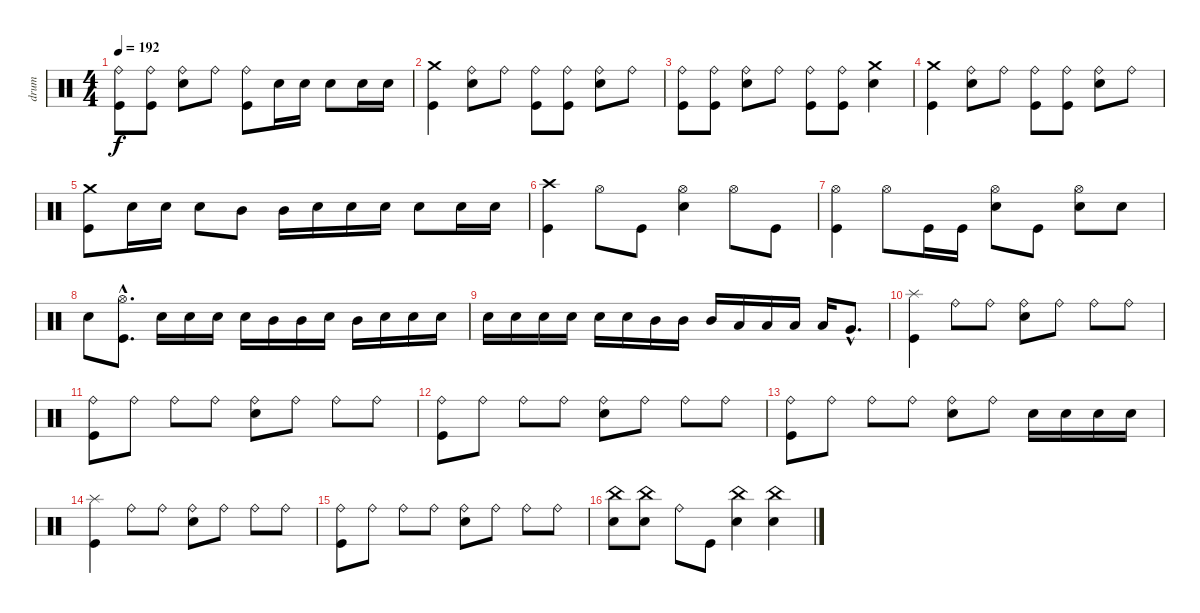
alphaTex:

\track ("drum" "drum") {instrument percussion}
\staff {score}
\articulation defaults
\ts (4 4)
\tempo 192
\clef neutral
\ks c
("Kick (hit)" "Ride (bell)").8{dy f} ("Kick (hit)" "Ride (bell)").8 ("Electric Snare (hit)" "Ride (bell)").8 "Ride (bell)".8 ("Kick (hit)" "Ride (bell)").8 "Electric Snare (hit)".16 "Electric Snare (hit)".16 "Electric Snare (hit)".8 "Electric Snare (hit)".16 "Electric Snare (hit)".16 |
("Kick (hit)" "Crash medium (hit)").4 ("Electric Snare (hit)" "Ride (bell)").8 "Ride (bell)".8 ("Kick (hit)" "Ride (bell)").8 ("Kick (hit)" "Ride (bell)").8 ("Electric Snare (hit)" "Ride (bell)").8 "Ride (bell)".8 |
("Kick (hit)" "Ride (bell)").8 ("Kick (hit)" "Ride (bell)").8 ("Electric Snare (hit)" "Ride (bell)").8 "Ride (bell)".8 ("Kick (hit)" "Ride (bell)").8 ("Kick (hit)" "Ride (bell)").8 ("Electric Snare (hit)" "Crash medium (hit)").4 |
("Kick (hit)" "Crash medium (hit)").4 ("Electric Snare (hit)" "Ride (bell)").8 "Ride (bell)".8 ("Kick (hit)" "Ride (bell)").8 ("Kick (hit)" "Ride (bell)").8 ("Electric Snare (hit)" "Ride (bell)").8 "Ride (bell)".8 |
("Kick (hit)" "Crash medium (hit)").8 "Electric Snare (hit)".16 "Electric Snare (hit)".16 "Electric Snare (hit)".8 "Mid Tom (hit)".8 "Mid Tom (hit)".16 "Electric Snare (hit)".16 "Electric Snare (hit)".16 "Electric Snare (hit)".16 "Electric Snare (hit)".8 "Electric Snare (hit)".16 "Electric Snare (hit)".16 |
("Kick (hit)" "Crash high (hit)").4 "Hi-Hat (open)".8 "Kick (hit)".8 ("Electric Snare (hit)" "Hi-Hat (open)").4 "Hi-Hat (open)".8 "Kick (hit)".8 |
("Kick (hit)" "Hi-Hat (open)").4 "Hi-Hat (open)".8 "Kick (hit)".16 "Kick (hit)".16 ("Electric Snare (hit)" "Hi-Hat (open)").8 "Kick (hit)".8 ("Electric Snare (hit)" "Hi-Hat (open)").8 "Electric Snare (hit)".8 |
"Electric Snare (hit)".8 ("Kick (hit)"{hac} "Hi-Hat (open)"{hac}).8{d} "Electric Snare (hit)".16 "Electric Snare (hit)".16 "Electric Snare (hit)".16 "Electric Snare (hit)".16 "Mid Tom (hit)".16 "Mid Tom (hit)".16 "Electric Snare (hit)".16 "Mid Tom (hit)".16 "Electric Snare (hit)".16 "Electric Snare (hit)".16 "Electric Snare (hit)".16 |
"Electric Snare (hit)".16 "Electric Snare (hit)".16 "Electric Snare (hit)".16 "Electric Snare (hit)".16 "Electric Snare (hit)".16 "Electric Snare (hit)".16 "Mid Tom (hit)".16 "Mid Tom (hit)".16 "Mid Tom (hit)".16 "Low Tom (hit)".16 "Low Tom (hit)".16 "Low Tom (hit)".16 "Low Tom (hit)".16 "Very Low Tom (hit)"{hac}.8{d} |
("Kick (hit)" "Splash (hit)").4 "Ride (bell)".8 "Ride (bell)".8 ("Electric Snare (hit)" "Ride (bell)").8 "Ride (bell)".8 "Ride (bell)".8 "Ride (bell)".8 |
("Kick (hit)" "Ride (bell)").8 "Ride (bell)".8 "Ride (bell)".8 "Ride (bell)".8 ("Electric Snare (hit)" "Ride (bell)").8 "Ride (bell)".8 "Ride (bell)".8 "Ride (bell)".8 |
("Kick (hit)" "Ride (bell)").8 "Ride (bell)".8 "Ride (bell)".8 "Ride (bell)".8 ("Electric Snare (hit)" "Ride (bell)").8 "Ride (bell)".8 "Ride (bell)".8 "Ride (bell)".8 |
("Kick (hit)" "Ride (bell)").8 "Ride (bell)".8 "Ride (bell)".8 "Ride (bell)".8 ("Electric Snare (hit)" "Ride (bell)").8 "Ride (bell)".8 "Electric Snare (hit)".16 "Electric Snare (hit)".16 "Electric Snare (hit)".16 "Electric Snare (hit)".16 |
("Kick (hit)" "Splash (hit)").4 "Ride (bell)".8 "Ride (bell)".8 ("Electric Snare (hit)" "Ride (bell)").8 "Ride (bell)".8 "Ride (bell)".8 "Ride (bell)".8 |
("Kick (hit)" "Ride (bell)").8 "Ride (bell)".8 "Ride (bell)".8 "Ride (bell)".8 ("Electric Snare (hit)" "Ride (bell)").8 "Ride (bell)".8 "Ride (bell)".8 "Ride (bell)".8 |
("Electric Snare (hit)" "China (hit)").8 ("Electric Snare (hit)" "China (hit)").8 "Ride (bell)".8 "Kick (hit)".8 ("Electric Snare (hit)" "China (hit)").4 ("Electric Snare (hit)" "China (hit)").4
